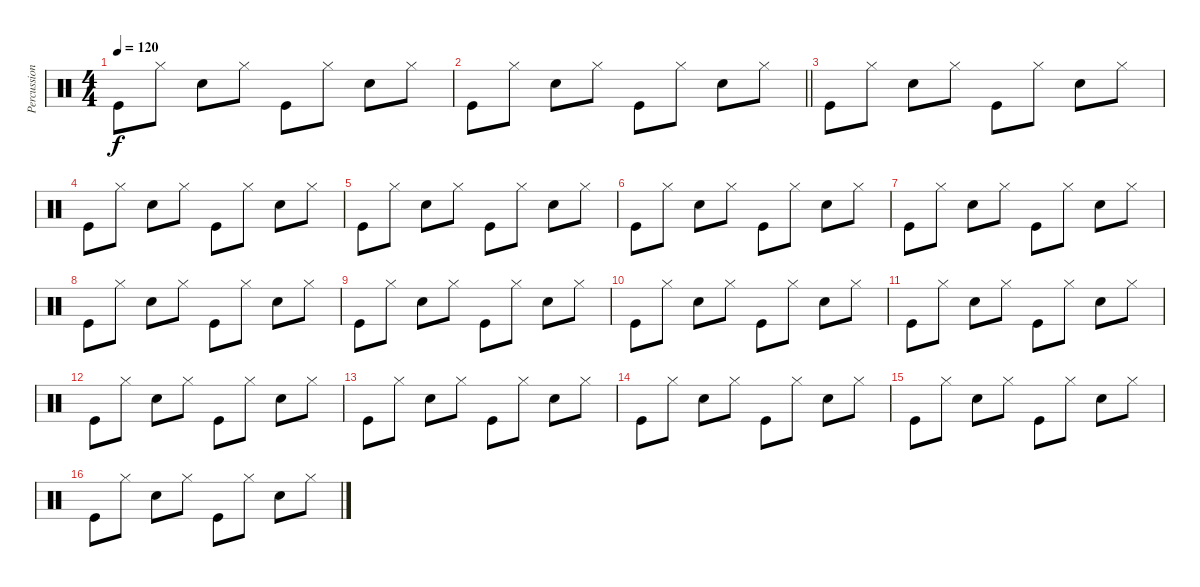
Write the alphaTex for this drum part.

\track ("Percussion" "Percussion") {instrument percussion}
\staff {score}
\articulation defaults
\ts (4 4)
\tempo 120
\clef neutral
\ks c "Kick (hit)".8{dy f} "Hi-Hat (closed)".8 "Snare (hit) 2".8 "Hi-Hat (closed)".8 "Kick (hit)".8 "Hi-Hat (closed)".8 "Snare (hit) 2".8 "Hi-Hat (closed)".8
|
\barLineRight lightlight "Kick (hit)".8 "Hi-Hat (closed)".8 "Snare (hit) 2".8 "Hi-Hat (closed)".8 "Kick (hit)".8 "Hi-Hat (closed)".8 "Snare (hit) 2".8 "Hi-Hat (closed)".8
|
"Kick (hit)".8 "Hi-Hat (closed)".8 "Snare (hit) 2".8 "Hi-Hat (closed)".8 "Kick (hit)".8 "Hi-Hat (closed)".8 "Snare (hit) 2".8 "Hi-Hat (closed)".8 |
"Kick (hit)".8 "Hi-Hat (closed)".8 "Snare (hit) 2".8 "Hi-Hat (closed)".8 "Kick (hit)".8 "Hi-Hat (closed)".8 "Snare (hit) 2".8 "Hi-Hat (closed)".8 |
"Kick (hit)".8 "Hi-Hat (closed)".8 "Snare (hit) 2".8 "Hi-Hat (closed)".8 "Kick (hit)".8 "Hi-Hat (closed)".8 "Snare (hit) 2".8 "Hi-Hat (closed)".8 |
"Kick (hit)".8 "Hi-Hat (closed)".8 "Snare (hit) 2".8 "Hi-Hat (closed)".8 "Kick (hit)".8 "Hi-Hat (closed)".8 "Snare (hit) 2".8 "Hi-Hat (closed)".8 |
"Kick (hit)".8 "Hi-Hat (closed)".8 "Snare (hit) 2".8 "Hi-Hat (closed)".8 "Kick (hit)".8 "Hi-Hat (closed)".8 "Snare (hit) 2".8 "Hi-Hat (closed)".8 |
"Kick (hit)".8 "Hi-Hat (closed)".8 "Snare (hit) 2".8 "Hi-Hat (closed)".8 "Kick (hit)".8 "Hi-Hat (closed)".8 "Snare (hit) 2".8 "Hi-Hat (closed)".8 |
"Kick (hit)".8 "Hi-Hat (closed)".8 "Snare (hit) 2".8 "Hi-Hat (closed)".8 "Kick (hit)".8 "Hi-Hat (closed)".8 "Snare (hit) 2".8 "Hi-Hat (closed)".8 |
"Kick (hit)".8 "Hi-Hat (closed)".8 "Snare (hit) 2".8 "Hi-Hat (closed)".8 "Kick (hit)".8 "Hi-Hat (closed)".8 "Snare (hit) 2".8 "Hi-Hat (closed)".8 |
"Kick (hit)".8 "Hi-Hat (closed)".8 "Snare (hit) 2".8 "Hi-Hat (closed)".8 "Kick (hit)".8 "Hi-Hat (closed)".8 "Snare (hit) 2".8 "Hi-Hat (closed)".8 |
"Kick (hit)".8 "Hi-Hat (closed)".8 "Snare (hit) 2".8 "Hi-Hat (closed)".8 "Kick (hit)".8 "Hi-Hat (closed)".8 "Snare (hit) 2".8 "Hi-Hat (closed)".8 |
"Kick (hit)".8 "Hi-Hat (closed)".8 "Snare (hit) 2".8 "Hi-Hat (closed)".8 "Kick (hit)".8 "Hi-Hat (closed)".8 "Snare (hit) 2".8 "Hi-Hat (closed)".8 |
"Kick (hit)".8 "Hi-Hat (closed)".8 "Snare (hit) 2".8 "Hi-Hat (closed)".8 "Kick (hit)".8 "Hi-Hat (closed)".8 "Snare (hit) 2".8 "Hi-Hat (closed)".8 |
"Kick (hit)".8 "Hi-Hat (closed)".8 "Snare (hit) 2".8 "Hi-Hat (closed)".8 "Kick (hit)".8 "Hi-Hat (closed)".8 "Snare (hit) 2".8 "Hi-Hat (closed)".8 |
"Kick (hit)".8 "Hi-Hat (closed)".8 "Snare (hit) 2".8 "Hi-Hat (closed)".8 "Kick (hit)".8 "Hi-Hat (closed)".8 "Snare (hit) 2".8 "Hi-Hat (closed)".8
